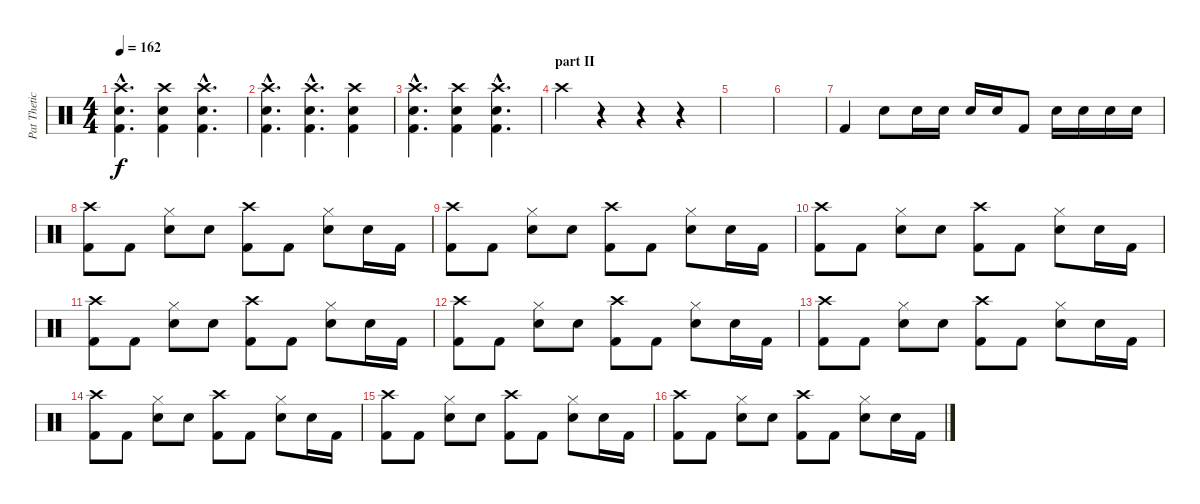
\track ("Pat Thetic" "Pat Thetic") {instrument percussion}
\staff {score}
\articulation defaults
\ts (4 4)
\tempo 162
\clef neutral
\ks c
("Crash high (hit)"{hac} "Kick (hit) 2"{hac} "Snare (hit) 2"{hac}).4{d dy f} ("Crash high (hit)" "Kick (hit) 2" "Snare (hit) 2").4 ("Crash high (hit)"{hac} "Kick (hit) 2"{hac} "Snare (hit) 2"{hac}).4{d} |
("Crash high (hit)"{hac} "Kick (hit) 2"{hac} "Snare (hit) 2"{hac}).4{d} ("Crash high (hit)"{hac} "Kick (hit) 2"{hac} "Snare (hit) 2"{hac}).4{d} ("Crash high (hit)" "Kick (hit) 2" "Snare (hit) 2").4 |
("Crash high (hit)"{hac} "Kick (hit) 2"{hac} "Snare (hit) 2"{hac}).4{d} ("Crash high (hit)" "Kick (hit) 2" "Snare (hit) 2").4 ("Crash high (hit)"{hac} "Kick (hit) 2"{hac} "Snare (hit) 2"{hac}).4{d} |
\section ("" "part II")
"Crash high (hit)".4{volume 10} r.4{volume 10} r.4{volume 10} r.4{volume 10} |
|
|
"Kick (hit) 2".4 "Snare (hit) 2".8 "Snare (hit) 2".16 "Snare (hit) 2".16 "Snare (hit) 2".16 "Snare (hit) 2".16 "Kick (hit) 2".8 "Snare (hit) 2".16 "Snare (hit) 2".16 "Snare (hit) 2".16 "Snare (hit) 2".16 |
("Crash high (hit)" "Kick (hit) 2").8 "Kick (hit) 2".8 ("Hi-Hat (closed)" "Snare (hit) 2").8 "Snare (hit) 2".8 ("Crash high (hit)" "Kick (hit) 2").8 "Kick (hit) 2".8 ("Hi-Hat (closed)" "Snare (hit) 2").8 "Snare (hit) 2".16 "Kick (hit) 2".16 |
("Crash high (hit)" "Kick (hit) 2").8 "Kick (hit) 2".8 ("Hi-Hat (closed)" "Snare (hit) 2").8 "Snare (hit) 2".8 ("Crash high (hit)" "Kick (hit) 2").8 "Kick (hit) 2".8 ("Hi-Hat (closed)" "Snare (hit) 2").8 "Snare (hit) 2".16 "Kick (hit) 2".16 |
("Crash high (hit)" "Kick (hit) 2").8 "Kick (hit) 2".8 ("Hi-Hat (closed)" "Snare (hit) 2").8 "Snare (hit) 2".8 ("Crash high (hit)" "Kick (hit) 2").8 "Kick (hit) 2".8 ("Hi-Hat (closed)" "Snare (hit) 2").8 "Snare (hit) 2".16 "Kick (hit) 2".16 |
("Crash high (hit)" "Kick (hit) 2").8 "Kick (hit) 2".8 ("Hi-Hat (closed)" "Snare (hit) 2").8 "Snare (hit) 2".8 ("Crash high (hit)" "Kick (hit) 2").8 "Kick (hit) 2".8 ("Hi-Hat (closed)" "Snare (hit) 2").8 "Snare (hit) 2".16 "Kick (hit) 2".16 |
("Crash high (hit)" "Kick (hit) 2").8 "Kick (hit) 2".8 ("Hi-Hat (closed)" "Snare (hit) 2").8 "Snare (hit) 2".8 ("Crash high (hit)" "Kick (hit) 2").8 "Kick (hit) 2".8 ("Hi-Hat (closed)" "Snare (hit) 2").8 "Snare (hit) 2".16 "Kick (hit) 2".16 |
("Crash high (hit)" "Kick (hit) 2").8 "Kick (hit) 2".8 ("Hi-Hat (closed)" "Snare (hit) 2").8 "Snare (hit) 2".8 ("Crash high (hit)" "Kick (hit) 2").8 "Kick (hit) 2".8 ("Hi-Hat (closed)" "Snare (hit) 2").8 "Snare (hit) 2".16 "Kick (hit) 2".16 |
("Crash high (hit)" "Kick (hit) 2").8 "Kick (hit) 2".8 ("Hi-Hat (closed)" "Snare (hit) 2").8 "Snare (hit) 2".8 ("Crash high (hit)" "Kick (hit) 2").8 "Kick (hit) 2".8 ("Hi-Hat (closed)" "Snare (hit) 2").8 "Snare (hit) 2".16 "Kick (hit) 2".16 |
("Crash high (hit)" "Kick (hit) 2").8 "Kick (hit) 2".8 ("Hi-Hat (closed)" "Snare (hit) 2").8 "Snare (hit) 2".8 ("Crash high (hit)" "Kick (hit) 2").8 "Kick (hit) 2".8 ("Hi-Hat (closed)" "Snare (hit) 2").8 "Snare (hit) 2".16 "Kick (hit) 2".16 |
("Crash high (hit)" "Kick (hit) 2").8 "Kick (hit) 2".8 ("Hi-Hat (closed)" "Snare (hit) 2").8 "Snare (hit) 2".8 ("Crash high (hit)" "Kick (hit) 2").8 "Kick (hit) 2".8 ("Hi-Hat (closed)" "Snare (hit) 2").8 "Snare (hit) 2".16 "Kick (hit) 2".16
